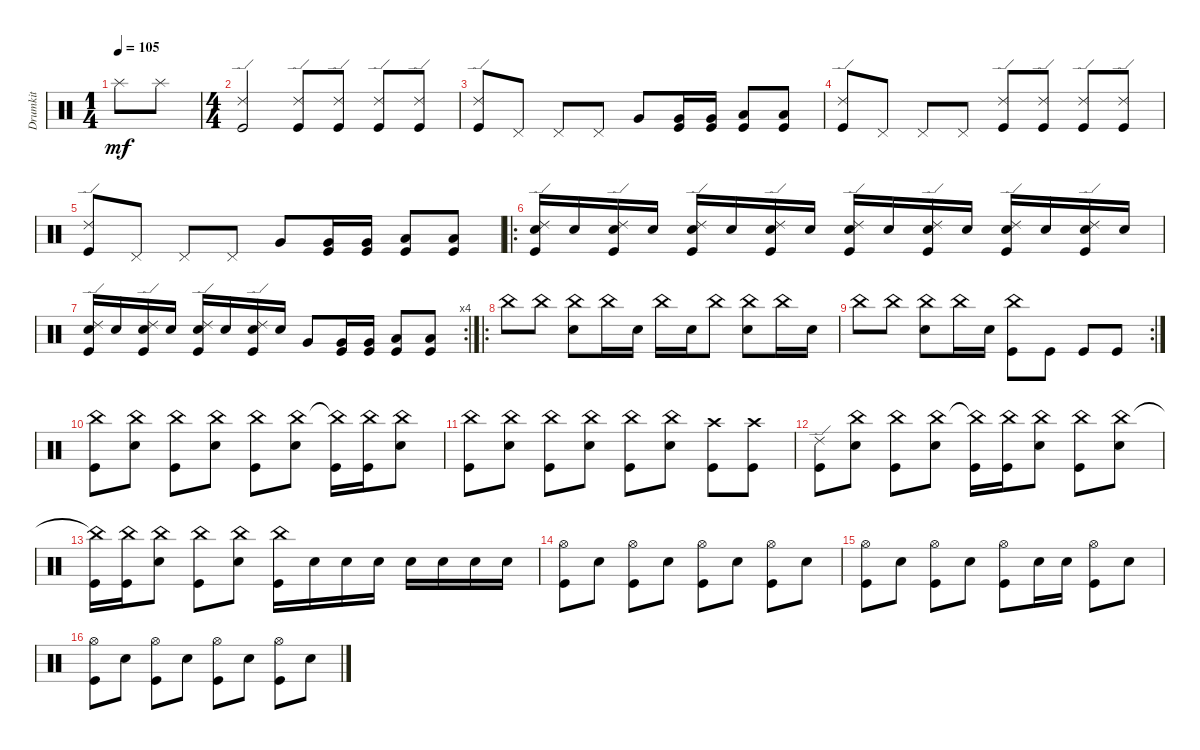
\track ("Drumkit" "Drumkit") {instrument percussion}
\staff {score}
\articulation defaults
\ts (1 4)
\tempo 105
\clef neutral
\ks c "Splash (hit)".8{dy mf} "Splash (hit)".8
|
\ts (4 4)
("Kick (hit)" "Ride (edge) 2").2 ("Kick (hit)" "Ride (edge) 2").8 ("Kick (hit)" "Ride (edge) 2").8 ("Kick (hit)" "Ride (edge) 2").8 ("Kick (hit)" "Ride (edge) 2").8 |
("Kick (hit)" "Ride (edge) 2").8 "Pedal Hi-Hat (hit)".8 "Pedal Hi-Hat (hit)".8 "Pedal Hi-Hat (hit)".8 "Very Low Tom (hit)".8 ("Very Low Tom (hit)" "Kick (hit)").16 ("Very Low Tom (hit)" "Kick (hit)").16 ("Low Floor Tom (hit)" "Kick (hit)").8 ("Low Floor Tom (hit)" "Kick (hit)").8 |
("Kick (hit)" "Ride (edge) 2").8 "Pedal Hi-Hat (hit)".8 "Pedal Hi-Hat (hit)".8 "Pedal Hi-Hat (hit)".8 ("Kick (hit)" "Ride (edge) 2").8 ("Kick (hit)" "Ride (edge) 2").8 ("Kick (hit)" "Ride (edge) 2").8 ("Kick (hit)" "Ride (edge) 2").8 |
("Kick (hit)" "Ride (edge) 2").8 "Pedal Hi-Hat (hit)".8 "Pedal Hi-Hat (hit)".8 "Pedal Hi-Hat (hit)".8 "Very Low Tom (hit)".8 ("Very Low Tom (hit)" "Kick (hit)").16 ("Very Low Tom (hit)" "Kick (hit)").16 ("Low Floor Tom (hit)" "Kick (hit)").8 ("Low Floor Tom (hit)" "Kick (hit)").8 |
\ro
("Snare (hit) 2" "Ride (edge) 2" "Kick (hit)").16 "Snare (hit) 2".16 ("Snare (hit) 2" "Ride (edge) 2" "Kick (hit)").16 "Snare (hit) 2".16 ("Snare (hit) 2" "Ride (edge) 2" "Kick (hit)").16 "Snare (hit) 2".16 ("Snare (hit) 2" "Ride (edge) 2" "Kick (hit)").16 "Snare (hit) 2".16 ("Snare (hit) 2" "Ride (edge) 2" "Kick (hit)").16 "Snare (hit) 2".16 ("Snare (hit) 2" "Ride (edge) 2" "Kick (hit)").16 "Snare (hit) 2".16 ("Snare (hit) 2" "Ride (edge) 2" "Kick (hit)").16 "Snare (hit) 2".16 ("Snare (hit) 2" "Ride (edge) 2" "Kick (hit)").16 "Snare (hit) 2".16 |
\rc 4
("Snare (hit) 2" "Ride (edge) 2" "Kick (hit)").16 "Snare (hit) 2".16 ("Snare (hit) 2" "Ride (edge) 2" "Kick (hit)").16 "Snare (hit) 2".16 ("Snare (hit) 2" "Ride (edge) 2" "Kick (hit)").16 "Snare (hit) 2".16 ("Snare (hit) 2" "Ride (edge) 2" "Kick (hit)").16 "Snare (hit) 2".16 "Very Low Tom (hit)".8 ("Very Low Tom (hit)" "Kick (hit)").16 ("Very Low Tom (hit)" "Kick (hit)").16 ("Low Floor Tom (hit)" "Kick (hit)").8 ("Low Floor Tom (hit)" "Kick (hit)").8 |
\ro "China (hit)".8 "China (hit)".8
("Snare (hit) 2" "China (hit)").8 "China (hit)".16 "Snare (hit) 2".16 "China (hit)".16 "Snare (hit) 2".16 "China (hit)".8 ("Snare (hit) 2" "China (hit)").8 "China (hit)".16 "Snare (hit) 2".16 |
\rc 2 "China (hit)".8 "China (hit)".8
("Snare (hit) 2" "China (hit)").8 "China (hit)".16 "Snare (hit) 2".16 ("China (hit)" "Kick (hit)").8 "Kick (hit)".8 "Kick (hit)".8 "Kick (hit)".8 |
("Kick (hit)" "China (hit)").8 ("Snare (hit) 2" "China (hit)").8 ("Kick (hit)" "China (hit)").8 ("Snare (hit) 2" "China (hit)").8 ("Kick (hit)" "China (hit)").8 ("Snare (hit) 2" "China (hit)").8 ("Kick (hit)" "China (hit)"{t}).16 ("Kick (hit)" "China (hit)").16 ("Snare (hit) 2" "China (hit)").8 |
("Kick (hit)" "China (hit)").8 ("Snare (hit) 2" "China (hit)").8 ("Kick (hit)" "China (hit)").8 ("Snare (hit) 2" "China (hit)").8 ("Kick (hit)" "China (hit)").8 ("Snare (hit) 2" "China (hit)").8 ("Crash high (hit)" "Kick (hit)").8 ("Crash high (hit)" "Kick (hit)").8 |
("Kick (hit)" "Ride (edge) 2").8 ("Snare (hit) 2" "China (hit)").8 ("Kick (hit)" "China (hit)").8 ("Snare (hit) 2" "China (hit)").8 ("Kick (hit)" "China (hit)"{t}).16 ("Kick (hit)" "China (hit)").16 ("Snare (hit) 2" "China (hit)").8 ("Kick (hit)" "China (hit)").8 ("Snare (hit) 2" "China (hit)").8 |
("Kick (hit)" "China (hit)"{t}).16 ("Kick (hit)" "China (hit)").16 ("Snare (hit) 2" "China (hit)").8 ("Kick (hit)" "China (hit)").8 ("Snare (hit) 2" "China (hit)").8 ("Kick (hit)" "China (hit)").16 "Snare (hit) 2".16 "Snare (hit) 2".16 "Snare (hit) 2".16 "Snare (hit) 2".16 "Snare (hit) 2".16 "Snare (hit) 2".16 "Snare (hit) 2".16 |
("Hi-Hat (open)" "Kick (hit)").8 "Snare (hit) 2".8 ("Hi-Hat (open)" "Kick (hit)").8 "Snare (hit) 2".8 ("Hi-Hat (open)" "Kick (hit)").8 "Snare (hit) 2".8 ("Hi-Hat (open)" "Kick (hit)").8 "Snare (hit) 2".8 |
("Hi-Hat (open)" "Kick (hit)").8 "Snare (hit) 2".8 ("Hi-Hat (open)" "Kick (hit)").8 "Snare (hit) 2".8 ("Hi-Hat (open)" "Kick (hit)").8 "Snare (hit) 2".16 "Snare (hit) 2".16 ("Hi-Hat (open)" "Kick (hit)").8 "Snare (hit) 2".8 |
("Hi-Hat (open)" "Kick (hit)").8 "Snare (hit) 2".8 ("Hi-Hat (open)" "Kick (hit)").8 "Snare (hit) 2".8 ("Hi-Hat (open)" "Kick (hit)").8 "Snare (hit) 2".8 ("Hi-Hat (open)" "Kick (hit)").8 "Snare (hit) 2".8
